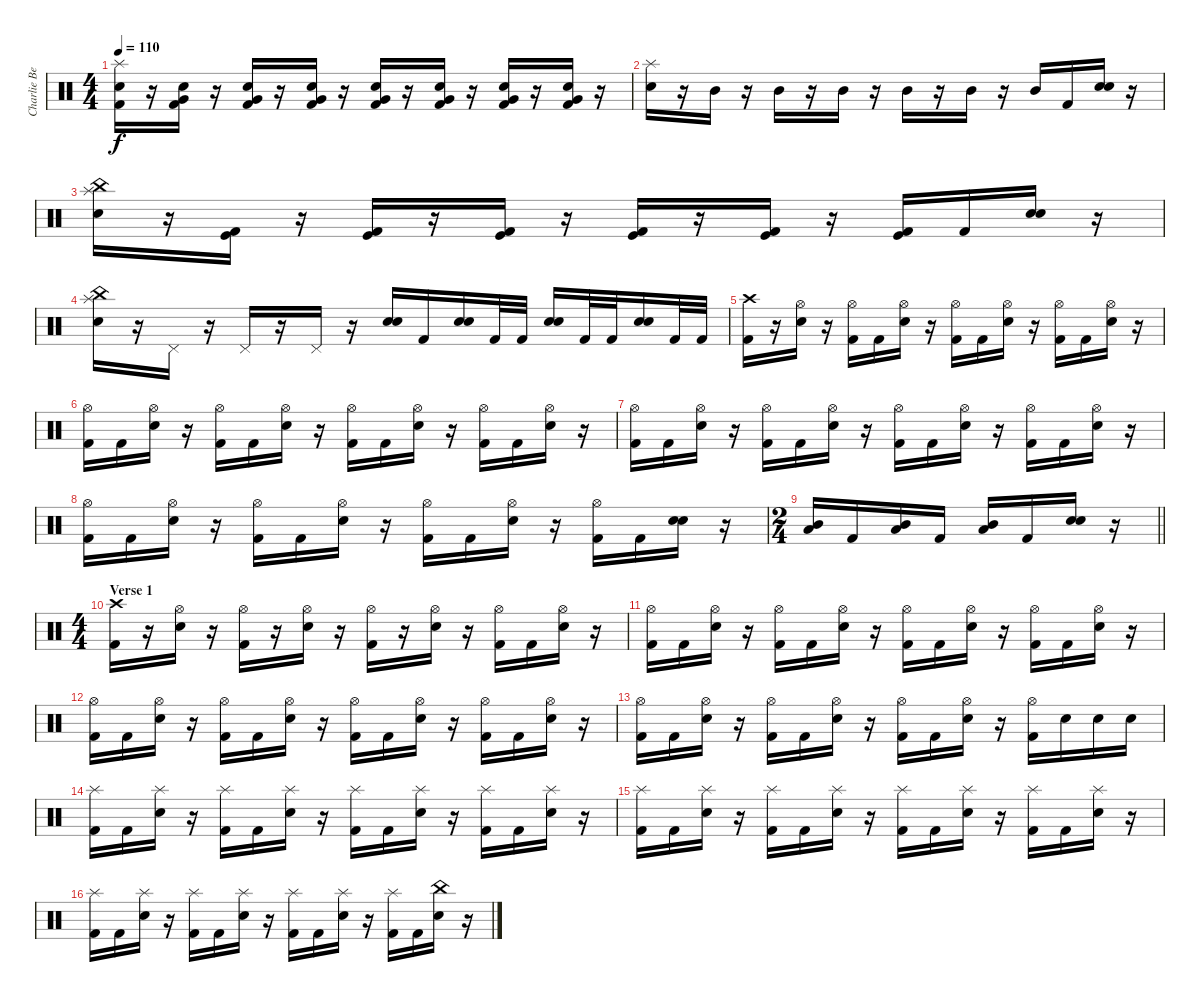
\track ("Charlie Benante" "Charlie Be") {instrument percussion}
\staff {score}
\articulation defaults
\ts (4 4)
\tempo 110
\clef neutral
\ks c
("Splash (hit)" "Electric Snare (hit)" "Kick (hit) 2").16{dy f} r.16 ("Very Low Tom (hit)" "Electric Snare (hit)" "Kick (hit) 2").16 r.16 ("Very Low Tom (hit)" "Electric Snare (hit)" "Kick (hit) 2").16 r.16 ("Very Low Tom (hit)" "Electric Snare (hit)" "Kick (hit) 2").16 r.16 ("Very Low Tom (hit)" "Electric Snare (hit)" "Kick (hit) 2").16 r.16 ("Very Low Tom (hit)" "Electric Snare (hit)" "Kick (hit) 2").16 r.16 ("Very Low Tom (hit)" "Electric Snare (hit)" "Kick (hit) 2").16 r.16 ("Very Low Tom (hit)" "Electric Snare (hit)" "Kick (hit) 2").16 r.16 |
("Splash (hit)" "Electric Snare (hit)").16 r.16 "Mid Tom (hit)".16 r.16 "Mid Tom (hit)".16 r.16 "Mid Tom (hit)".16 r.16 "Mid Tom (hit)".16 r.16 "Mid Tom (hit)".16 r.16 "Mid Tom (hit)".16 "Kick (hit) 2".16 ("Snare (hit) 2" "Electric Snare (hit)").16 r.16 |
("China (hit)" "Splash (hit)" "Electric Snare (hit)").16 r.16 ("Kick (hit)" "Kick (hit) 2").16 r.16 ("Kick (hit)" "Kick (hit) 2").16 r.16 ("Kick (hit)" "Kick (hit) 2").16 r.16 ("Kick (hit)" "Kick (hit) 2").16 r.16 ("Kick (hit)" "Kick (hit) 2").16 r.16 ("Kick (hit)" "Kick (hit) 2").16 "Kick (hit) 2".16 ("Snare (hit) 2" "Electric Snare (hit)").16 r.16 |
("China (hit)" "Splash (hit)" "Electric Snare (hit)").16 r.16 "Pedal Hi-Hat (hit)".16 r.16 "Pedal Hi-Hat (hit)".16 r.16 "Pedal Hi-Hat (hit)".16 r.16 ("Snare (hit) 2" "Electric Snare (hit)").16 "Kick (hit) 2".16 ("Snare (hit) 2" "Electric Snare (hit)").16 "Kick (hit) 2".32 "Kick (hit) 2".32 ("Snare (hit) 2" "Electric Snare (hit)").16 "Kick (hit) 2".32 "Kick (hit) 2".32 ("Snare (hit) 2" "Electric Snare (hit)").16 "Kick (hit) 2".32 "Kick (hit) 2".32 |
("Crash high (hit)" "Kick (hit) 2").16 r.16 ("Hi-Hat (open)" "Electric Snare (hit)").16 r.16 ("Hi-Hat (open)" "Kick (hit) 2").16 "Kick (hit) 2".16 ("Hi-Hat (open)" "Electric Snare (hit)").16 r.16 ("Hi-Hat (open)" "Kick (hit) 2").16 "Kick (hit) 2".16 ("Hi-Hat (open)" "Electric Snare (hit)").16 r.16 ("Hi-Hat (open)" "Kick (hit) 2").16 "Kick (hit) 2".16 ("Hi-Hat (open)" "Electric Snare (hit)").16 r.16 |
("Hi-Hat (open)" "Kick (hit) 2").16 "Kick (hit) 2".16 ("Hi-Hat (open)" "Electric Snare (hit)").16 r.16 ("Hi-Hat (open)" "Kick (hit) 2").16 "Kick (hit) 2".16 ("Hi-Hat (open)" "Electric Snare (hit)").16 r.16 ("Hi-Hat (open)" "Kick (hit) 2").16 "Kick (hit) 2".16 ("Hi-Hat (open)" "Electric Snare (hit)").16 r.16 ("Hi-Hat (open)" "Kick (hit) 2").16 "Kick (hit) 2".16 ("Hi-Hat (open)" "Electric Snare (hit)").16 r.16 |
("Hi-Hat (open)" "Kick (hit) 2").16 "Kick (hit) 2".16 ("Hi-Hat (open)" "Electric Snare (hit)").16 r.16 ("Hi-Hat (open)" "Kick (hit) 2").16 "Kick (hit) 2".16 ("Hi-Hat (open)" "Electric Snare (hit)").16 r.16 ("Hi-Hat (open)" "Kick (hit) 2").16 "Kick (hit) 2".16 ("Hi-Hat (open)" "Electric Snare (hit)").16 r.16 ("Hi-Hat (open)" "Kick (hit) 2").16 "Kick (hit) 2".16 ("Hi-Hat (open)" "Electric Snare (hit)").16 r.16 |
("Hi-Hat (open)" "Kick (hit) 2").16 "Kick (hit) 2".16 ("Hi-Hat (open)" "Electric Snare (hit)").16 r.16 ("Hi-Hat (open)" "Kick (hit) 2").16 "Kick (hit) 2".16 ("Hi-Hat (open)" "Electric Snare (hit)").16 r.16 ("Hi-Hat (open)" "Kick (hit) 2").16 "Kick (hit) 2".16 ("Hi-Hat (open)" "Electric Snare (hit)").16 r.16 ("Hi-Hat (open)" "Kick (hit) 2").16 "Kick (hit) 2".16 ("Snare (hit) 2" "Electric Snare (hit)").16 r.16 |
\ts (2 4)
\barLineRight lightlight
("Low Tom (hit)" "Mid Tom (hit)").16 "Kick (hit) 2".16 ("Low Tom (hit)" "Mid Tom (hit)").16 "Kick (hit) 2".16 ("Low Tom (hit)" "Mid Tom (hit)").16 "Kick (hit) 2".16 ("Snare (hit) 2" "Electric Snare (hit)").16 r.16 |
\ts (4 4)
\section ("" "Verse 1")
("Crash high (hit)" "Kick (hit) 2").16 r.16 ("Hi-Hat (open)" "Electric Snare (hit)").16 r.16 ("Hi-Hat (open)" "Kick (hit) 2").16 r.16 ("Hi-Hat (open)" "Electric Snare (hit)").16 r.16 ("Hi-Hat (open)" "Kick (hit) 2").16 r.16 ("Hi-Hat (open)" "Electric Snare (hit)").16 r.16 ("Hi-Hat (open)" "Kick (hit) 2").16 "Kick (hit) 2".16 ("Hi-Hat (open)" "Electric Snare (hit)").16 r.16 |
("Hi-Hat (open)" "Kick (hit) 2").16 "Kick (hit) 2".16 ("Hi-Hat (open)" "Electric Snare (hit)").16 r.16 ("Hi-Hat (open)" "Kick (hit) 2").16 "Kick (hit) 2".16 ("Hi-Hat (open)" "Electric Snare (hit)").16 r.16 ("Hi-Hat (open)" "Kick (hit) 2").16 "Kick (hit) 2".16 ("Hi-Hat (open)" "Electric Snare (hit)").16 r.16 ("Hi-Hat (open)" "Kick (hit) 2").16 "Kick (hit) 2".16 ("Hi-Hat (open)" "Electric Snare (hit)").16 r.16 |
("Hi-Hat (open)" "Kick (hit) 2").16 "Kick (hit) 2".16 ("Hi-Hat (open)" "Electric Snare (hit)").16 r.16 ("Hi-Hat (open)" "Kick (hit) 2").16 "Kick (hit) 2".16 ("Hi-Hat (open)" "Electric Snare (hit)").16 r.16 ("Hi-Hat (open)" "Kick (hit) 2").16 "Kick (hit) 2".16 ("Hi-Hat (open)" "Electric Snare (hit)").16 r.16 ("Hi-Hat (open)" "Kick (hit) 2").16 "Kick (hit) 2".16 ("Hi-Hat (open)" "Electric Snare (hit)").16 r.16 |
("Hi-Hat (open)" "Kick (hit) 2").16 "Kick (hit) 2".16 ("Hi-Hat (open)" "Electric Snare (hit)").16 r.16 ("Hi-Hat (open)" "Kick (hit) 2").16 "Kick (hit) 2".16 ("Hi-Hat (open)" "Electric Snare (hit)").16 r.16 ("Hi-Hat (open)" "Kick (hit) 2").16 "Kick (hit) 2".16 ("Hi-Hat (open)" "Electric Snare (hit)").16 r.16 ("Hi-Hat (open)" "Kick (hit) 2").16 "Electric Snare (hit)".16 "Snare (hit) 2".16 "Electric Snare (hit)".16 |
("Splash (hit)" "Kick (hit) 2").16 "Kick (hit) 2".16 ("Splash (hit)" "Electric Snare (hit)").16 r.16 ("Splash (hit)" "Kick (hit) 2").16 "Kick (hit) 2".16 ("Splash (hit)" "Electric Snare (hit)").16 r.16 ("Splash (hit)" "Kick (hit) 2").16 "Kick (hit) 2".16 ("Splash (hit)" "Electric Snare (hit)").16 r.16 ("Splash (hit)" "Kick (hit) 2").16 "Kick (hit) 2".16 ("Splash (hit)" "Electric Snare (hit)").16 r.16 |
("Splash (hit)" "Kick (hit) 2").16 "Kick (hit) 2".16 ("Splash (hit)" "Electric Snare (hit)").16 r.16 ("Splash (hit)" "Kick (hit) 2").16 "Kick (hit) 2".16 ("Splash (hit)" "Electric Snare (hit)").16 r.16 ("Splash (hit)" "Kick (hit) 2").16 "Kick (hit) 2".16 ("Splash (hit)" "Electric Snare (hit)").16 r.16 ("Splash (hit)" "Kick (hit) 2").16 "Kick (hit) 2".16 ("Splash (hit)" "Electric Snare (hit)").16 r.16 |
("Splash (hit)" "Kick (hit) 2").16 "Kick (hit) 2".16 ("Splash (hit)" "Electric Snare (hit)").16 r.16 ("Splash (hit)" "Kick (hit) 2").16 "Kick (hit) 2".16 ("Splash (hit)" "Electric Snare (hit)").16 r.16 ("Splash (hit)" "Kick (hit) 2").16 "Kick (hit) 2".16 ("Splash (hit)" "Electric Snare (hit)").16 r.16 ("Splash (hit)" "Kick (hit) 2").16 "Kick (hit) 2".16 ("China (hit)" "Electric Snare (hit)").16 r.16
